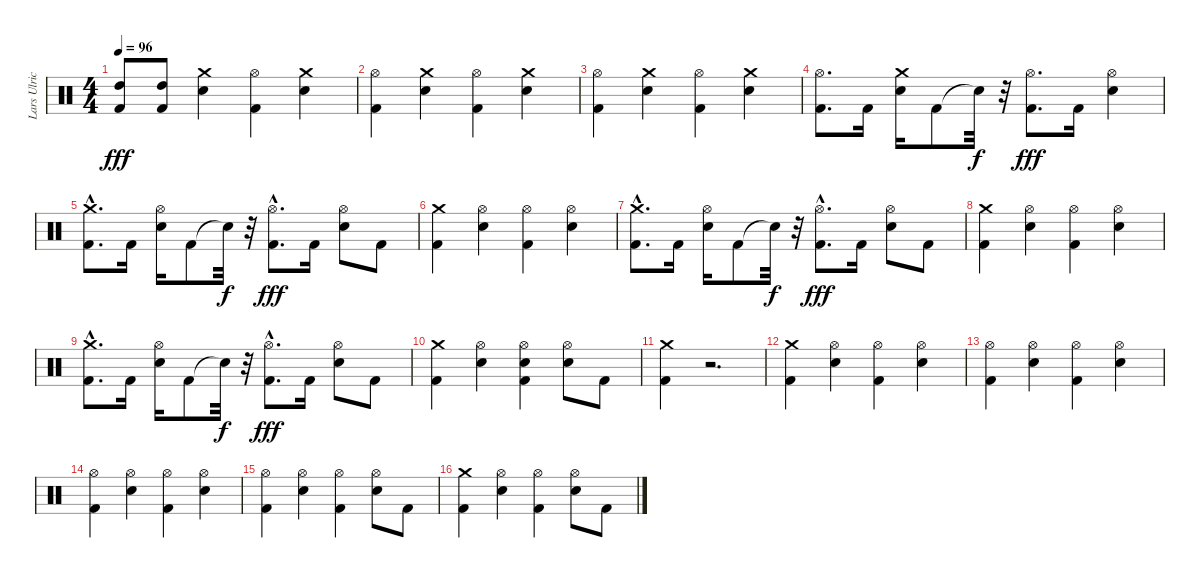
\track ("Lars Ulrich" "Lars Ulric") {instrument percussion}
\staff {score}
\articulation defaults
\ts (4 4)
\tempo 96
\clef neutral
\ks c
("Kick (hit) 2" "High Tom (hit)").8{dy fff} ("Kick (hit) 2" "High Tom (hit)").8 ("Snare (hit) 2" "Crash medium (hit)").4 ("Hi-Hat (open)" "Kick (hit) 2").4 ("Snare (hit) 2" "Crash medium (hit)").4 |
("Hi-Hat (open)" "Kick (hit) 2").4 ("Snare (hit) 2" "Crash medium (hit)").4 ("Hi-Hat (open)" "Kick (hit) 2").4 ("Snare (hit) 2" "Crash medium (hit)").4 |
("Hi-Hat (open)" "Kick (hit) 2").4 ("Snare (hit) 2" "Crash medium (hit)").4 ("Hi-Hat (open)" "Kick (hit) 2").4 ("Snare (hit) 2" "Crash medium (hit)").4 |
("Hi-Hat (open)" "Kick (hit) 2").8{d} "Kick (hit) 2".16 ("Crash medium (hit)" "Snare (hit) 2").16 "Kick (hit) 2".8 "Snare (hit)"{t}.32{dy f} r.32 ("Hi-Hat (open)" "Kick (hit) 2").8{d dy fff} "Kick (hit) 2".16 ("Hi-Hat (open)" "Snare (hit) 2").4 |
("Kick (hit) 2"{hac} "Crash medium (hit)").8{d} "Kick (hit) 2".16 ("Hi-Hat (open)" "Snare (hit) 2").16 "Kick (hit) 2".8 "Snare (hit)"{t}.32{dy f} r.32 ("Kick (hit) 2"{hac} "Hi-Hat (open)").8{d dy fff} "Kick (hit) 2".16 ("Snare (hit) 2" "Hi-Hat (open)").8 "Kick (hit) 2".8 |
("Kick (hit) 2" "Crash medium (hit)").4 ("Hi-Hat (open)" "Snare (hit) 2").4 ("Hi-Hat (open)" "Kick (hit) 2").4 ("Hi-Hat (open)" "Snare (hit) 2").4 |
("Kick (hit) 2"{hac} "Crash medium (hit)").8{d} "Kick (hit) 2".16 ("Hi-Hat (open)" "Snare (hit) 2").16 "Kick (hit) 2".8 "Snare (hit)"{t}.32{dy f} r.32 ("Kick (hit) 2"{hac} "Hi-Hat (open)").8{d dy fff} "Kick (hit) 2".16 ("Snare (hit) 2" "Hi-Hat (open)").8 "Kick (hit) 2".8 |
("Kick (hit) 2" "Crash medium (hit)").4 ("Hi-Hat (open)" "Snare (hit) 2").4 ("Hi-Hat (open)" "Kick (hit) 2").4 ("Hi-Hat (open)" "Snare (hit) 2").4 |
("Kick (hit) 2"{hac} "Crash medium (hit)").8{d} "Kick (hit) 2".16 ("Hi-Hat (open)" "Snare (hit) 2").16 "Kick (hit) 2".8 "Snare (hit)"{t}.32{dy f} r.32 ("Kick (hit) 2"{hac} "Hi-Hat (open)").8{d dy fff} "Kick (hit) 2".16 ("Snare (hit) 2" "Hi-Hat (open)").8 "Kick (hit) 2".8 |
("Kick (hit) 2" "Crash medium (hit)").4 ("Hi-Hat (open)" "Snare (hit) 2").4 ("Hi-Hat (open)" "Snare (hit) 2" "Kick (hit) 2").4 ("Hi-Hat (open)" "Snare (hit) 2").8 "Kick (hit) 2".8 |
("Kick (hit) 2" "Crash medium (hit)").4 r.2{d} |
("Crash medium (hit)" "Kick (hit) 2").4 ("Hi-Hat (open)" "Snare (hit) 2").4 ("Kick (hit) 2" "Hi-Hat (open)").4 ("Hi-Hat (open)" "Snare (hit) 2").4 |
("Hi-Hat (open)" "Kick (hit) 2").4 ("Hi-Hat (open)" "Snare (hit) 2").4 ("Hi-Hat (open)" "Kick (hit) 2").4 ("Hi-Hat (open)" "Snare (hit) 2").4 |
("Hi-Hat (open)" "Kick (hit) 2").4 ("Hi-Hat (open)" "Snare (hit) 2").4 ("Hi-Hat (open)" "Kick (hit) 2").4 ("Hi-Hat (open)" "Snare (hit) 2").4 |
("Hi-Hat (open)" "Kick (hit) 2").4 ("Hi-Hat (open)" "Snare (hit) 2").4 ("Hi-Hat (open)" "Kick (hit) 2").4 ("Snare (hit) 2" "Hi-Hat (open)").8 "Kick (hit) 2".8 |
("Kick (hit) 2" "Crash medium (hit)").4 ("Hi-Hat (open)" "Snare (hit) 2").4 ("Hi-Hat (open)" "Kick (hit) 2").4 ("Hi-Hat (open)" "Snare (hit) 2").8 "Kick (hit) 2".8
